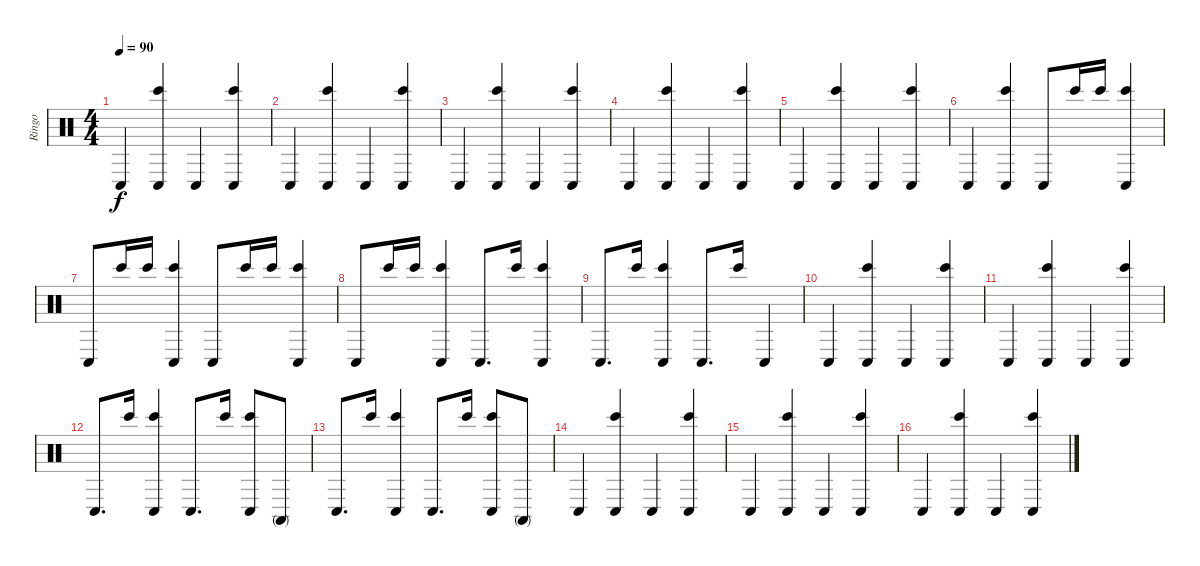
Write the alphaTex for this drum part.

\track ("Ringo" "Ringo") {instrument percussion}
\staff {score}
\articulation defaults
\ts (4 4)
\tempo 90
\clef neutral
\ks c "Conga low (hit)".4{dy f}
("Conga low (hit)" "Bongo High (hit)").4 "Conga low (hit)".4 ("Conga low (hit)" "Bongo High (hit)").4 |
"Conga low (hit)".4 ("Conga low (hit)" "Bongo High (hit)").4 "Conga low (hit)".4 ("Conga low (hit)" "Bongo High (hit)").4 |
"Conga low (hit)".4 ("Conga low (hit)" "Bongo High (hit)").4 "Conga low (hit)".4 ("Conga low (hit)" "Bongo High (hit)").4 |
"Conga low (hit)".4 ("Conga low (hit)" "Bongo High (hit)").4 "Conga low (hit)".4 ("Conga low (hit)" "Bongo High (hit)").4 |
"Conga low (hit)".4 ("Conga low (hit)" "Bongo High (hit)").4 "Conga low (hit)".4 ("Conga low (hit)" "Bongo High (hit)").4 |
"Conga low (hit)".4 ("Conga low (hit)" "Bongo High (hit)").4 "Conga low (hit)".8 "Bongo High (hit)".16 "Bongo High (hit)".16 ("Conga low (hit)" "Bongo High (hit)").4 |
"Conga low (hit)".8 "Bongo High (hit)".16 "Bongo High (hit)".16 ("Conga low (hit)" "Bongo High (hit)").4 "Conga low (hit)".8 "Bongo High (hit)".16 "Bongo High (hit)".16 ("Conga low (hit)" "Bongo High (hit)").4 |
"Conga low (hit)".8 "Bongo High (hit)".16 "Bongo High (hit)".16 ("Conga low (hit)" "Bongo High (hit)").4 "Conga low (hit)".8{d} "Bongo High (hit)".16 ("Conga low (hit)" "Bongo High (hit)").4 |
"Conga low (hit)".8{d} "Bongo High (hit)".16 ("Conga low (hit)" "Bongo High (hit)").4 "Conga low (hit)".8{d} "Bongo High (hit)".16 "Conga low (hit)".4 |
"Conga low (hit)".4 ("Conga low (hit)" "Bongo High (hit)").4 "Conga low (hit)".4 ("Conga low (hit)" "Bongo High (hit)").4 |
"Conga low (hit)".4 ("Conga low (hit)" "Bongo High (hit)").4 "Conga low (hit)".4 ("Conga low (hit)" "Bongo High (hit)").4 |
"Conga low (hit)".8{d} "Bongo High (hit)".16 ("Conga low (hit)" "Bongo High (hit)").4 "Conga low (hit)".8{d} "Bongo High (hit)".16 ("Conga low (hit)" "Bongo High (hit)").8 "Conga high (mute)".8 |
"Conga low (hit)".8{d} "Bongo High (hit)".16 ("Conga low (hit)" "Bongo High (hit)").4 "Conga low (hit)".8{d} "Bongo High (hit)".16 ("Conga low (hit)" "Bongo High (hit)").8 "Conga high (mute)".8 |
"Conga low (hit)".4 ("Conga low (hit)" "Bongo High (hit)").4 "Conga low (hit)".4 ("Conga low (hit)" "Bongo High (hit)").4 |
"Conga low (hit)".4 ("Conga low (hit)" "Bongo High (hit)").4 "Conga low (hit)".4 ("Conga low (hit)" "Bongo High (hit)").4 |
"Conga low (hit)".4 ("Conga low (hit)" "Bongo High (hit)").4 "Conga low (hit)".4 ("Conga low (hit)" "Bongo High (hit)").4
